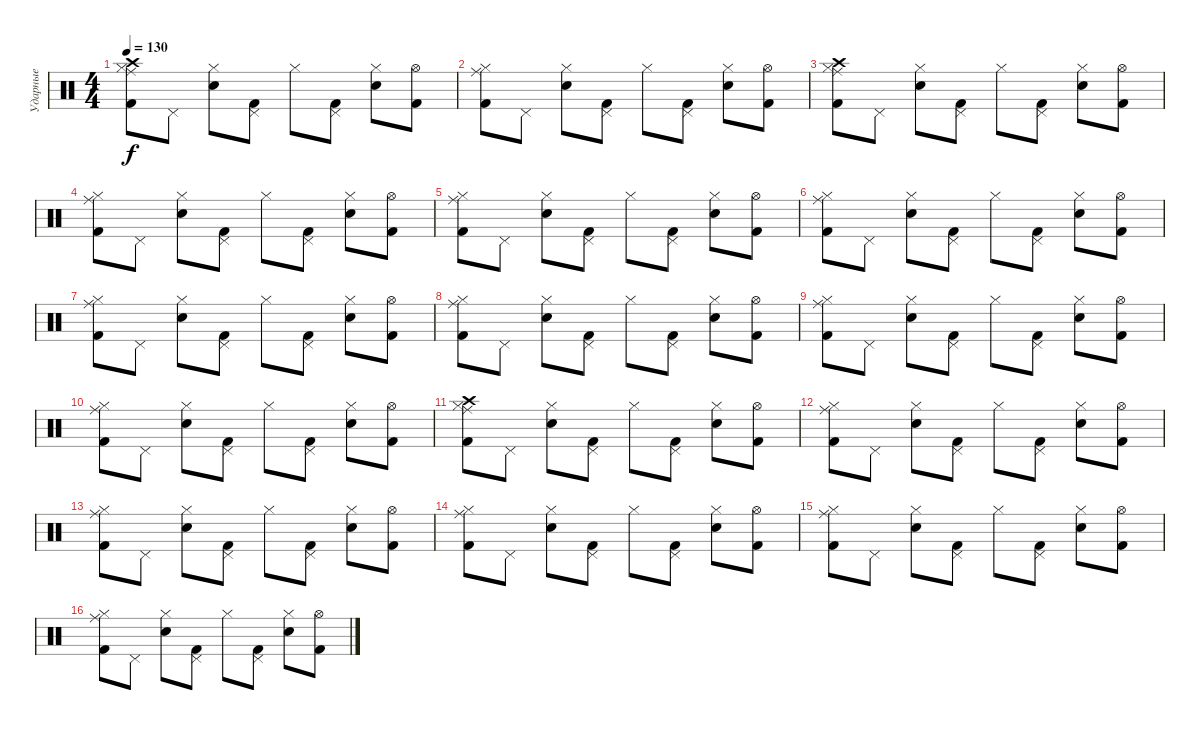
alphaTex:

\track ("Ударные" "Ударные") {instrument percussion}
\staff {score}
\articulation defaults
\ts (4 4)
\tempo 130
\clef neutral
\ks c
("Hi-Hat (closed)" "Kick (hit) 2" "Ride (middle)" "Crash high (hit)").8{dy f} "Pedal Hi-Hat (hit)".8 ("Hi-Hat (closed)" "Snare (hit) 2").8 ("Pedal Hi-Hat (hit)" "Kick (hit) 2").8 "Hi-Hat (closed)".8 ("Pedal Hi-Hat (hit)" "Kick (hit) 2").8 ("Hi-Hat (closed)" "Snare (hit) 2").8 ("Hi-Hat (open)" "Kick (hit) 2").8 |
("Hi-Hat (closed)" "Kick (hit) 2" "Ride (middle)").8 "Pedal Hi-Hat (hit)".8 ("Hi-Hat (closed)" "Snare (hit) 2").8 ("Pedal Hi-Hat (hit)" "Kick (hit) 2").8 "Hi-Hat (closed)".8 ("Pedal Hi-Hat (hit)" "Kick (hit) 2").8 ("Hi-Hat (closed)" "Snare (hit) 2").8 ("Hi-Hat (open)" "Kick (hit) 2").8 |
("Hi-Hat (closed)" "Kick (hit) 2" "Ride (middle)" "Crash high (hit)").8 "Pedal Hi-Hat (hit)".8 ("Hi-Hat (closed)" "Snare (hit) 2").8 ("Pedal Hi-Hat (hit)" "Kick (hit) 2").8 "Hi-Hat (closed)".8 ("Pedal Hi-Hat (hit)" "Kick (hit) 2").8 ("Hi-Hat (closed)" "Snare (hit) 2").8 ("Hi-Hat (open)" "Kick (hit) 2").8 |
("Hi-Hat (closed)" "Kick (hit) 2" "Ride (middle)").8 "Pedal Hi-Hat (hit)".8 ("Hi-Hat (closed)" "Snare (hit) 2").8 ("Pedal Hi-Hat (hit)" "Kick (hit) 2").8 "Hi-Hat (closed)".8 ("Pedal Hi-Hat (hit)" "Kick (hit) 2").8 ("Hi-Hat (closed)" "Snare (hit) 2").8 ("Hi-Hat (open)" "Kick (hit) 2").8 |
("Hi-Hat (closed)" "Kick (hit) 2" "Ride (middle)").8 "Pedal Hi-Hat (hit)".8 ("Hi-Hat (closed)" "Snare (hit) 2").8 ("Pedal Hi-Hat (hit)" "Kick (hit) 2").8 "Hi-Hat (closed)".8 ("Pedal Hi-Hat (hit)" "Kick (hit) 2").8 ("Hi-Hat (closed)" "Snare (hit) 2").8 ("Hi-Hat (open)" "Kick (hit) 2").8 |
("Hi-Hat (closed)" "Kick (hit) 2" "Ride (middle)").8 "Pedal Hi-Hat (hit)".8 ("Hi-Hat (closed)" "Snare (hit) 2").8 ("Pedal Hi-Hat (hit)" "Kick (hit) 2").8 "Hi-Hat (closed)".8 ("Pedal Hi-Hat (hit)" "Kick (hit) 2").8 ("Hi-Hat (closed)" "Snare (hit) 2").8 ("Hi-Hat (open)" "Kick (hit) 2").8 |
("Hi-Hat (closed)" "Kick (hit) 2" "Ride (middle)").8 "Pedal Hi-Hat (hit)".8 ("Hi-Hat (closed)" "Snare (hit) 2").8 ("Pedal Hi-Hat (hit)" "Kick (hit) 2").8 "Hi-Hat (closed)".8 ("Pedal Hi-Hat (hit)" "Kick (hit) 2").8 ("Hi-Hat (closed)" "Snare (hit) 2").8 ("Hi-Hat (open)" "Kick (hit) 2").8 |
("Hi-Hat (closed)" "Kick (hit) 2" "Ride (middle)").8 "Pedal Hi-Hat (hit)".8 ("Hi-Hat (closed)" "Snare (hit) 2").8 ("Pedal Hi-Hat (hit)" "Kick (hit) 2").8 "Hi-Hat (closed)".8 ("Pedal Hi-Hat (hit)" "Kick (hit) 2").8 ("Hi-Hat (closed)" "Snare (hit) 2").8 ("Hi-Hat (open)" "Kick (hit) 2").8 |
("Hi-Hat (closed)" "Kick (hit) 2" "Ride (middle)").8 "Pedal Hi-Hat (hit)".8 ("Hi-Hat (closed)" "Snare (hit) 2").8 ("Pedal Hi-Hat (hit)" "Kick (hit) 2").8 "Hi-Hat (closed)".8 ("Pedal Hi-Hat (hit)" "Kick (hit) 2").8 ("Hi-Hat (closed)" "Snare (hit) 2").8 ("Hi-Hat (open)" "Kick (hit) 2").8 |
("Hi-Hat (closed)" "Kick (hit) 2" "Ride (middle)").8 "Pedal Hi-Hat (hit)".8 ("Hi-Hat (closed)" "Snare (hit) 2").8 ("Pedal Hi-Hat (hit)" "Kick (hit) 2").8 "Hi-Hat (closed)".8 ("Pedal Hi-Hat (hit)" "Kick (hit) 2").8 ("Hi-Hat (closed)" "Snare (hit) 2").8 ("Hi-Hat (open)" "Kick (hit) 2").8 |
("Hi-Hat (closed)" "Kick (hit) 2" "Ride (middle)" "Crash high (hit)").8 "Pedal Hi-Hat (hit)".8 ("Hi-Hat (closed)" "Snare (hit) 2").8 ("Pedal Hi-Hat (hit)" "Kick (hit) 2").8 "Hi-Hat (closed)".8 ("Pedal Hi-Hat (hit)" "Kick (hit) 2").8 ("Hi-Hat (closed)" "Snare (hit) 2").8 ("Hi-Hat (open)" "Kick (hit) 2").8 |
("Hi-Hat (closed)" "Kick (hit) 2" "Ride (middle)").8 "Pedal Hi-Hat (hit)".8 ("Hi-Hat (closed)" "Snare (hit) 2").8 ("Pedal Hi-Hat (hit)" "Kick (hit) 2").8 "Hi-Hat (closed)".8 ("Pedal Hi-Hat (hit)" "Kick (hit) 2").8 ("Hi-Hat (closed)" "Snare (hit) 2").8 ("Hi-Hat (open)" "Kick (hit) 2").8 |
("Hi-Hat (closed)" "Kick (hit) 2" "Ride (middle)").8 "Pedal Hi-Hat (hit)".8 ("Hi-Hat (closed)" "Snare (hit) 2").8 ("Pedal Hi-Hat (hit)" "Kick (hit) 2").8 "Hi-Hat (closed)".8 ("Pedal Hi-Hat (hit)" "Kick (hit) 2").8 ("Hi-Hat (closed)" "Snare (hit) 2").8 ("Hi-Hat (open)" "Kick (hit) 2").8 |
("Hi-Hat (closed)" "Kick (hit) 2" "Ride (middle)").8 "Pedal Hi-Hat (hit)".8 ("Hi-Hat (closed)" "Snare (hit) 2").8 ("Pedal Hi-Hat (hit)" "Kick (hit) 2").8 "Hi-Hat (closed)".8 ("Pedal Hi-Hat (hit)" "Kick (hit) 2").8 ("Hi-Hat (closed)" "Snare (hit) 2").8 ("Hi-Hat (open)" "Kick (hit) 2").8 |
("Hi-Hat (closed)" "Kick (hit) 2" "Ride (middle)").8 "Pedal Hi-Hat (hit)".8 ("Hi-Hat (closed)" "Snare (hit) 2").8 ("Pedal Hi-Hat (hit)" "Kick (hit) 2").8 "Hi-Hat (closed)".8 ("Pedal Hi-Hat (hit)" "Kick (hit) 2").8 ("Hi-Hat (closed)" "Snare (hit) 2").8 ("Hi-Hat (open)" "Kick (hit) 2").8 |
("Hi-Hat (closed)" "Kick (hit) 2" "Ride (middle)").8 "Pedal Hi-Hat (hit)".8 ("Hi-Hat (closed)" "Snare (hit) 2").8 ("Pedal Hi-Hat (hit)" "Kick (hit) 2").8 "Hi-Hat (closed)".8 ("Pedal Hi-Hat (hit)" "Kick (hit) 2").8 ("Hi-Hat (closed)" "Snare (hit) 2").8 ("Hi-Hat (open)" "Kick (hit) 2").8
